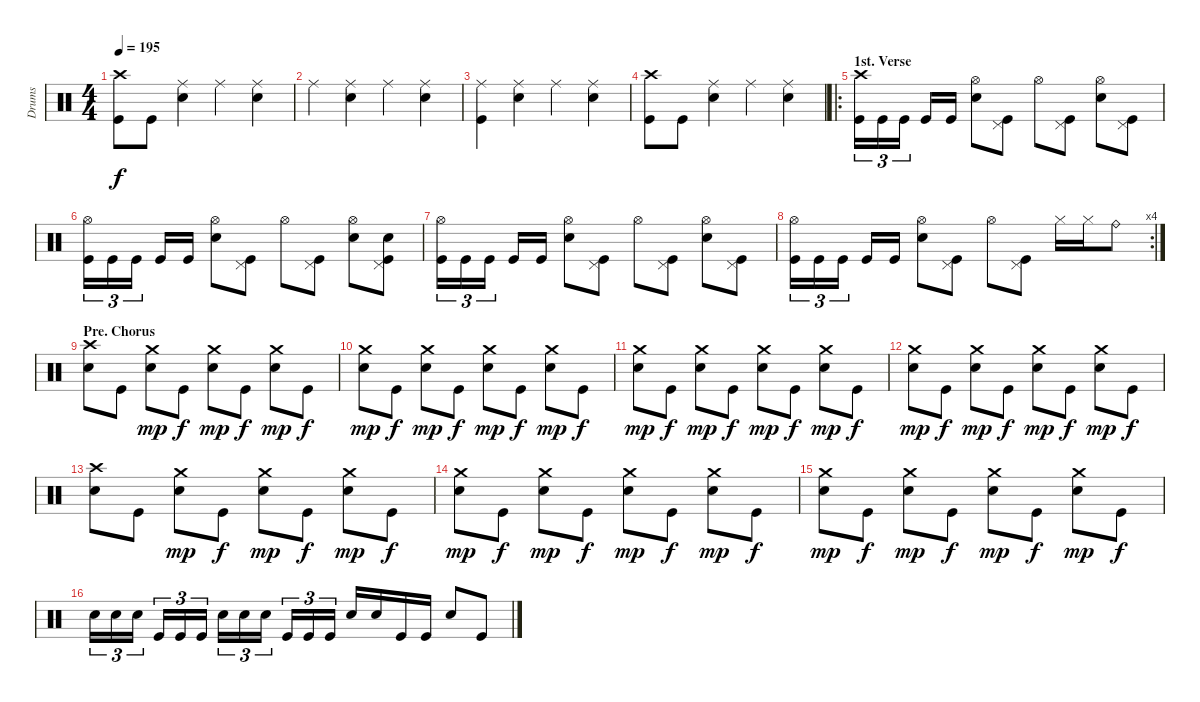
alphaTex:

\track ("Drums" "Drums") {instrument percussion}
\staff {score}
\articulation defaults
\ts (4 4)
\tempo 195
\clef neutral
\ks c
("Crash high (hit)" "Kick (hit)").8{dy f} "Kick (hit)".8 ("Ride (middle)" "Electric Snare (hit)").4 "Ride (middle)".4 ("Ride (middle)" "Electric Snare (hit)").4 |
"Ride (middle)".4 ("Ride (middle)" "Electric Snare (hit)").4 "Ride (middle)".4 ("Ride (middle)" "Electric Snare (hit)").4 |
("Ride (middle)" "Kick (hit)").4 ("Ride (middle)" "Electric Snare (hit)").4 "Ride (middle)".4 ("Ride (middle)" "Electric Snare (hit)").4 |
("Crash high (hit)" "Kick (hit)").8 "Kick (hit)".8 ("Ride (middle)" "Electric Snare (hit)").4 "Ride (middle)".4 ("Ride (middle)" "Electric Snare (hit)").4 |
\ro
\section ("" "1st. Verse")
("Crash high (hit)" "Kick (hit)").16{tu (3 2)} "Kick (hit)".16{tu (3 2)} "Kick (hit)".16{tu (3 2)} "Kick (hit)".16 "Kick (hit)".16 ("Hi-Hat (open)" "Electric Snare (hit)").8 ("Pedal Hi-Hat (hit)" "Kick (hit)").8 "Hi-Hat (open)".8 ("Pedal Hi-Hat (hit)" "Kick (hit)").8 ("Hi-Hat (open)" "Electric Snare (hit)").8 ("Pedal Hi-Hat (hit)" "Kick (hit)").8 |
("Hi-Hat (open)" "Kick (hit)").16{tu (3 2)} "Kick (hit)".16{tu (3 2)} "Kick (hit)".16{tu (3 2)} "Kick (hit)".16 "Kick (hit)".16 ("Hi-Hat (open)" "Electric Snare (hit)").8 ("Pedal Hi-Hat (hit)" "Kick (hit)").8 "Hi-Hat (open)".8 ("Pedal Hi-Hat (hit)" "Kick (hit)").8 ("Hi-Hat (open)" "Electric Snare (hit)").8 ("Pedal Hi-Hat (hit)" "Electric Snare (hit)" "Kick (hit)").8 |
("Hi-Hat (open)" "Kick (hit)").16{tu (3 2)} "Kick (hit)".16{tu (3 2)} "Kick (hit)".16{tu (3 2)} "Kick (hit)".16 "Kick (hit)".16 ("Hi-Hat (open)" "Electric Snare (hit)").8 ("Pedal Hi-Hat (hit)" "Kick (hit)").8 "Hi-Hat (open)".8 ("Pedal Hi-Hat (hit)" "Kick (hit)").8 ("Hi-Hat (open)" "Electric Snare (hit)").8 ("Pedal Hi-Hat (hit)" "Kick (hit)").8 |
\rc 4
("Hi-Hat (open)" "Kick (hit)").16{tu (3 2)} "Kick (hit)".16{tu (3 2)} "Kick (hit)".16{tu (3 2)} "Kick (hit)".16 "Kick (hit)".16 ("Hi-Hat (open)" "Electric Snare (hit)").8 ("Pedal Hi-Hat (hit)" "Kick (hit)").8 "Hi-Hat (open)".8 ("Pedal Hi-Hat (hit)" "Kick (hit)").8 "Hi-Hat (closed)".16 "Hi-Hat (closed)".16 "Ride (bell)".8 |
\section ("" "Pre. Chorus")
("Crash high (hit)" "Electric Snare (hit)").8 "Kick (hit)".8 ("Crash medium (hit)" "Electric Snare (hit)").8{dy mp} "Kick (hit)".8{dy f} ("Crash medium (hit)" "Electric Snare (hit)").8{dy mp} "Kick (hit)".8{dy f} ("Crash medium (hit)" "Electric Snare (hit)").8{dy mp} "Kick (hit)".8{dy f} |
("Crash medium (hit)" "Electric Snare (hit)").8{dy mp} "Kick (hit)".8{dy f} ("Crash medium (hit)" "Electric Snare (hit)").8{dy mp} "Kick (hit)".8{dy f} ("Crash medium (hit)" "Electric Snare (hit)").8{dy mp} "Kick (hit)".8{dy f} ("Crash medium (hit)" "Electric Snare (hit)").8{dy mp} "Kick (hit)".8{dy f} |
("Crash medium (hit)" "Electric Snare (hit)").8{dy mp} "Kick (hit)".8{dy f} ("Crash medium (hit)" "Electric Snare (hit)").8{dy mp} "Kick (hit)".8{dy f} ("Crash medium (hit)" "Electric Snare (hit)").8{dy mp} "Kick (hit)".8{dy f} ("Crash medium (hit)" "Electric Snare (hit)").8{dy mp} "Kick (hit)".8{dy f} |
("Crash medium (hit)" "Electric Snare (hit)").8{dy mp} "Kick (hit)".8{dy f} ("Crash medium (hit)" "Electric Snare (hit)").8{dy mp} "Kick (hit)".8{dy f} ("Crash medium (hit)" "Electric Snare (hit)").8{dy mp} "Kick (hit)".8{dy f} ("Crash medium (hit)" "Electric Snare (hit)").8{dy mp} "Kick (hit)".8{dy f} |
("Crash high (hit)" "Electric Snare (hit)").8 "Kick (hit)".8 ("Crash medium (hit)" "Electric Snare (hit)").8{dy mp} "Kick (hit)".8{dy f} ("Crash medium (hit)" "Electric Snare (hit)").8{dy mp} "Kick (hit)".8{dy f} ("Crash medium (hit)" "Electric Snare (hit)").8{dy mp} "Kick (hit)".8{dy f} |
("Crash medium (hit)" "Electric Snare (hit)").8{dy mp} "Kick (hit)".8{dy f} ("Crash medium (hit)" "Electric Snare (hit)").8{dy mp} "Kick (hit)".8{dy f} ("Crash medium (hit)" "Electric Snare (hit)").8{dy mp} "Kick (hit)".8{dy f} ("Crash medium (hit)" "Electric Snare (hit)").8{dy mp} "Kick (hit)".8{dy f} |
("Crash medium (hit)" "Electric Snare (hit)").8{dy mp} "Kick (hit)".8{dy f} ("Crash medium (hit)" "Electric Snare (hit)").8{dy mp} "Kick (hit)".8{dy f} ("Crash medium (hit)" "Electric Snare (hit)").8{dy mp} "Kick (hit)".8{dy f} ("Crash medium (hit)" "Electric Snare (hit)").8{dy mp} "Kick (hit)".8{dy f} |
"Electric Snare (hit)".16{tu (3 2)} "Electric Snare (hit)".16{tu (3 2)} "Electric Snare (hit)".16{tu (3 2)} "Kick (hit)".16{tu (3 2)} "Kick (hit)".16{tu (3 2)} "Kick (hit)".16{tu (3 2)} "Electric Snare (hit)".16{tu (3 2)} "Electric Snare (hit)".16{tu (3 2)} "Electric Snare (hit)".16{tu (3 2)} "Kick (hit)".16{tu (3 2)} "Kick (hit)".16{tu (3 2)} "Kick (hit)".16{tu (3 2)} "Electric Snare (hit)".16 "Electric Snare (hit)".16 "Kick (hit)".16 "Kick (hit)".16 "Electric Snare (hit)".8 "Kick (hit)".8
